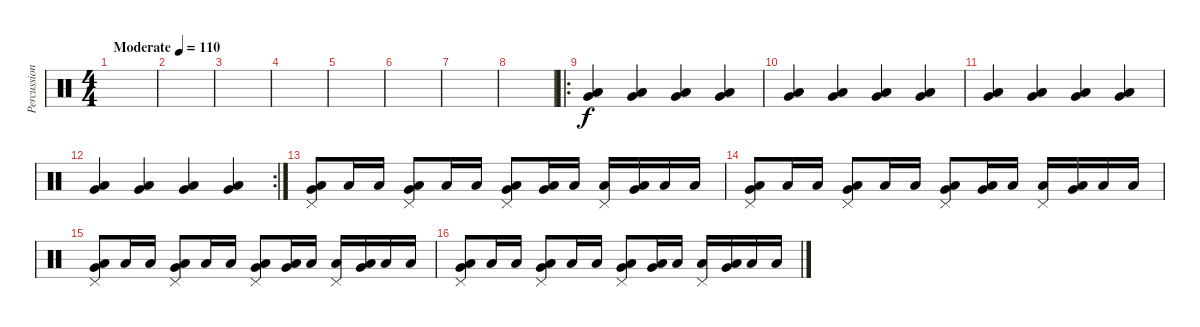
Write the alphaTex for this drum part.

\track ("Percussion" "Percussion") {instrument percussion}
\staff {score}
\articulation defaults
\ts (4 4)
\tempo (110 "Moderate")
\clef neutral
\ks c
|
|
|
|
|
|
|
|
\ro
("Low Tom (hit)" "Very Low Tom (hit)").4 ("Low Tom (hit)" "Very Low Tom (hit)").4 ("Low Tom (hit)" "Very Low Tom (hit)").4 ("Low Tom (hit)" "Very Low Tom (hit)").4 |
("Low Tom (hit)" "Very Low Tom (hit)").4 ("Low Tom (hit)" "Very Low Tom (hit)").4 ("Low Tom (hit)" "Very Low Tom (hit)").4 ("Low Tom (hit)" "Very Low Tom (hit)").4 |
("Low Tom (hit)" "Very Low Tom (hit)").4 ("Low Tom (hit)" "Very Low Tom (hit)").4 ("Low Tom (hit)" "Very Low Tom (hit)").4 ("Low Tom (hit)" "Very Low Tom (hit)").4 |
\rc 2
("Low Tom (hit)" "Very Low Tom (hit)").4 ("Low Tom (hit)" "Very Low Tom (hit)").4 ("Low Tom (hit)" "Very Low Tom (hit)").4 ("Low Tom (hit)" "Very Low Tom (hit)").4 |
("Pedal Hi-Hat (hit)" "Low Tom (hit)" "Very Low Tom (hit)").8 "Low Tom (hit)".16 "Low Tom (hit)".16 ("Pedal Hi-Hat (hit)" "Low Tom (hit)" "Very Low Tom (hit)").8 "Low Tom (hit)".16 "Low Tom (hit)".16 ("Pedal Hi-Hat (hit)" "Low Tom (hit)" "Very Low Tom (hit)").8 ("Low Tom (hit)" "Very Low Tom (hit)").16 "Low Tom (hit)".16 ("Pedal Hi-Hat (hit)" "Low Tom (hit)").16 ("Low Tom (hit)" "Very Low Tom (hit)").16 "Low Tom (hit)".16 "Low Tom (hit)".16 |
("Pedal Hi-Hat (hit)" "Low Tom (hit)" "Very Low Tom (hit)").8 "Low Tom (hit)".16 "Low Tom (hit)".16 ("Pedal Hi-Hat (hit)" "Low Tom (hit)" "Very Low Tom (hit)").8 "Low Tom (hit)".16 "Low Tom (hit)".16 ("Pedal Hi-Hat (hit)" "Low Tom (hit)" "Very Low Tom (hit)").8 ("Low Tom (hit)" "Very Low Tom (hit)").16 "Low Tom (hit)".16 ("Pedal Hi-Hat (hit)" "Low Tom (hit)").16 ("Low Tom (hit)" "Very Low Tom (hit)").16 "Low Tom (hit)".16 "Low Tom (hit)".16 |
("Pedal Hi-Hat (hit)" "Low Tom (hit)" "Very Low Tom (hit)").8 "Low Tom (hit)".16 "Low Tom (hit)".16 ("Pedal Hi-Hat (hit)" "Low Tom (hit)" "Very Low Tom (hit)").8 "Low Tom (hit)".16 "Low Tom (hit)".16 ("Pedal Hi-Hat (hit)" "Low Tom (hit)" "Very Low Tom (hit)").8 ("Low Tom (hit)" "Very Low Tom (hit)").16 "Low Tom (hit)".16 ("Pedal Hi-Hat (hit)" "Low Tom (hit)").16 ("Low Tom (hit)" "Very Low Tom (hit)").16 "Low Tom (hit)".16 "Low Tom (hit)".16 |
("Pedal Hi-Hat (hit)" "Low Tom (hit)" "Very Low Tom (hit)").8 "Low Tom (hit)".16 "Low Tom (hit)".16 ("Pedal Hi-Hat (hit)" "Low Tom (hit)" "Very Low Tom (hit)").8 "Low Tom (hit)".16 "Low Tom (hit)".16 ("Pedal Hi-Hat (hit)" "Low Tom (hit)" "Very Low Tom (hit)").8 ("Low Tom (hit)" "Very Low Tom (hit)").16 "Low Tom (hit)".16 ("Pedal Hi-Hat (hit)" "Low Tom (hit)").16 ("Low Tom (hit)" "Very Low Tom (hit)").16 "Low Tom (hit)".16 "Low Tom (hit)".16
